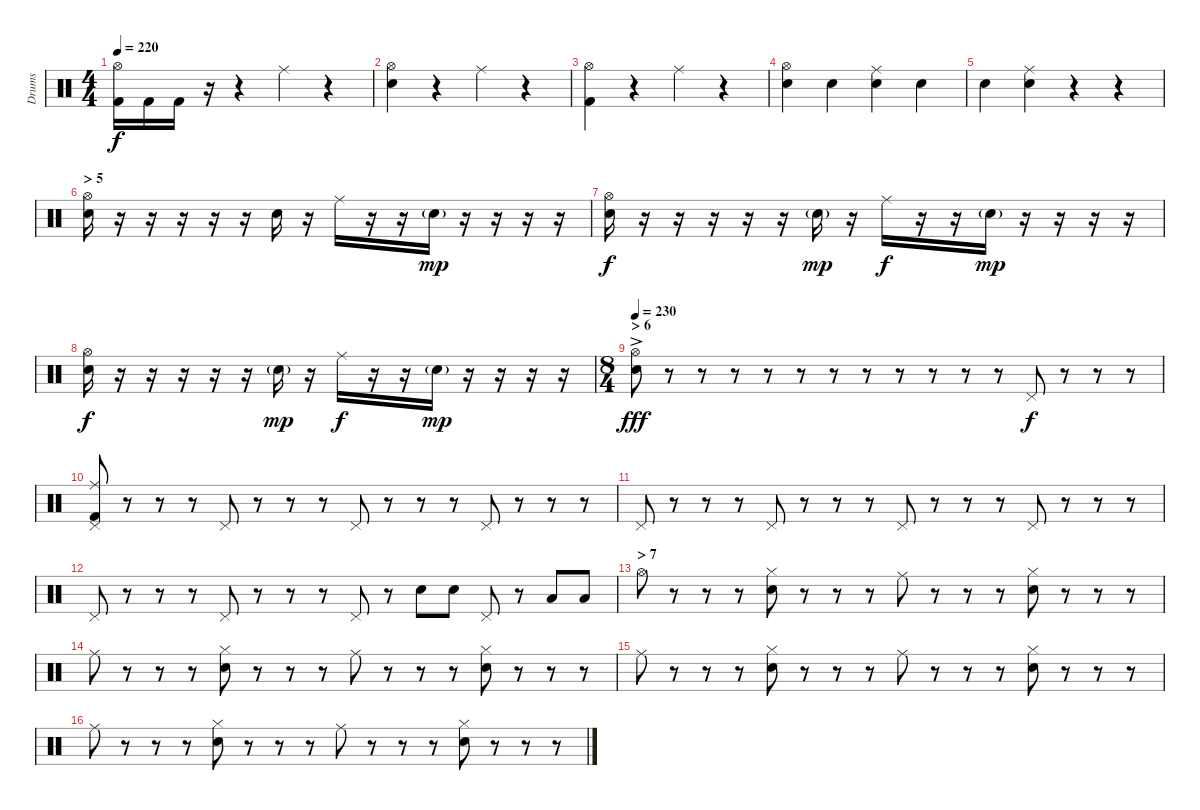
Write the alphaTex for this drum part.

\track ("Drums" "Drums") {instrument percussion}
\staff {score}
\articulation defaults
\ts (4 4)
\tempo 220
\clef neutral
\ks c
("Hi-Hat (open)" "Kick (hit) 2").16{dy f} "Kick (hit) 2".16 "Kick (hit) 2".16 r.16 r.4 "Ride (middle)".4 r.4 |
("Hi-Hat (open)" "Electric Snare (hit)").4 r.4 "Ride (middle)".4 r.4 |
("Hi-Hat (open)" "Kick (hit) 2").4 r.4 "Ride (middle)".4 r.4 |
("Hi-Hat (open)" "Electric Snare (hit)").4 "Electric Snare (hit)".4 ("Ride (middle)" "Electric Snare (hit)").4 "Electric Snare (hit)".4 |
"Electric Snare (hit)".4 ("Ride (middle)" "Electric Snare (hit)").4 r.4 r.4 |
\section ("" "> 5")
("Hi-Hat (open)" "Electric Snare (hit)").16 r.16 r.16 r.16 r.16 r.16 "Electric Snare (hit)".16 r.16 "Ride (middle)".16 r.16 r.16 "Electric Snare (hit)"{g}.16{dy mp} r.16 r.16 r.16 r.16 |
("Hi-Hat (open)" "Electric Snare (hit)").16{dy f} r.16 r.16 r.16 r.16 r.16 "Electric Snare (hit)"{g}.16{dy mp} r.16 "Ride (middle)".16{dy f} r.16 r.16 "Electric Snare (hit)"{g}.16{dy mp} r.16 r.16 r.16 r.16 |
("Hi-Hat (open)" "Electric Snare (hit)").16{dy f} r.16 r.16 r.16 r.16 r.16 "Electric Snare (hit)"{g}.16{dy mp} r.16 "Ride (middle)".16{dy f} r.16 r.16 "Electric Snare (hit)"{g}.16{dy mp} r.16 r.16 r.16 r.16 |
\ts (8 4)
\section ("" "> 6")
\tempo 230
("Hi-Hat (open)"{ac} "Electric Snare (hit)"{ac}).8{dy fff} r.8 r.8 r.8 r.8 r.8 r.8 r.8 r.8 r.8 r.8 r.8 "Pedal Hi-Hat (hit)".8{dy f} r.8 r.8 r.8 |
("Ride (middle)" "Pedal Hi-Hat (hit)" "Kick (hit) 2").8 r.8 r.8 r.8 "Pedal Hi-Hat (hit)".8 r.8 r.8 r.8 "Pedal Hi-Hat (hit)".8 r.8 r.8 r.8 "Pedal Hi-Hat (hit)".8 r.8 r.8 r.8 |
"Pedal Hi-Hat (hit)".8 r.8 r.8 r.8 "Pedal Hi-Hat (hit)".8 r.8 r.8 r.8 "Pedal Hi-Hat (hit)".8 r.8 r.8 r.8 "Pedal Hi-Hat (hit)".8 r.8 r.8 r.8 |
"Pedal Hi-Hat (hit)".8 r.8 r.8 r.8 "Pedal Hi-Hat (hit)".8 r.8 r.8 r.8 "Pedal Hi-Hat (hit)".8 r.8 "Electric Snare (hit)".8 "Electric Snare (hit)".8 "Pedal Hi-Hat (hit)".8 r.8 "Low Tom (hit)".8 "Low Tom (hit)".8 |
\section ("" "> 7")
"Hi-Hat (open)".8 r.8 r.8 r.8 ("Hi-Hat (closed)" "Electric Snare (hit)").8 r.8 r.8 r.8 "Ride (middle)".8 r.8 r.8 r.8 ("Hi-Hat (closed)" "Electric Snare (hit)").8 r.8 r.8 r.8 |
"Ride (middle)".8 r.8 r.8 r.8 ("Hi-Hat (closed)" "Electric Snare (hit)").8 r.8 r.8 r.8 "Ride (middle)".8 r.8 r.8 r.8 ("Hi-Hat (closed)" "Electric Snare (hit)").8 r.8 r.8 r.8 |
"Ride (middle)".8 r.8 r.8 r.8 ("Hi-Hat (closed)" "Electric Snare (hit)").8 r.8 r.8 r.8 "Ride (middle)".8 r.8 r.8 r.8 ("Hi-Hat (closed)" "Electric Snare (hit)").8 r.8 r.8 r.8 |
"Ride (middle)".8 r.8 r.8 r.8 ("Hi-Hat (closed)" "Electric Snare (hit)").8 r.8 r.8 r.8 "Ride (middle)".8 r.8 r.8 r.8 ("Hi-Hat (closed)" "Electric Snare (hit)").8 r.8 r.8 r.8
